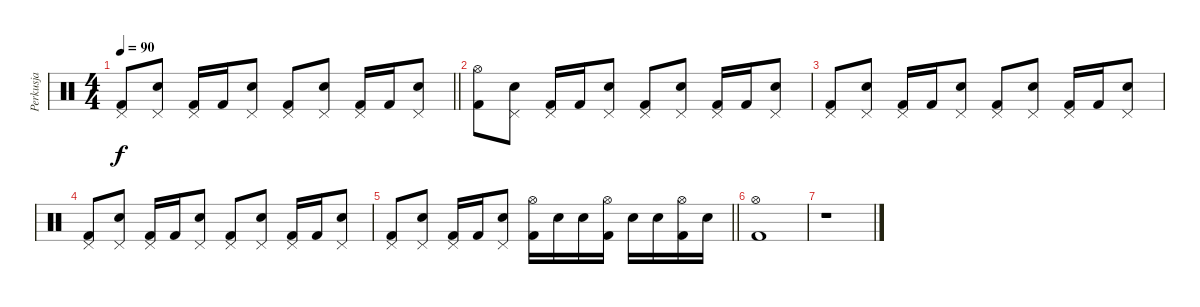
\track ("Perkusja" "Perkusja") {instrument percussion}
\staff {score}
\articulation defaults
\ts (4 4)
\tempo 90
\clef neutral
\barLineRight lightlight
\ks c
("Pedal Hi-Hat (hit)" "Kick (hit) 2").8{dy f} ("Pedal Hi-Hat (hit)" "Electric Snare (hit)").8 ("Pedal Hi-Hat (hit)" "Kick (hit) 2").16 "Kick (hit) 2".16 ("Pedal Hi-Hat (hit)" "Electric Snare (hit)").8 ("Pedal Hi-Hat (hit)" "Kick (hit) 2").8 ("Pedal Hi-Hat (hit)" "Electric Snare (hit)").8 ("Pedal Hi-Hat (hit)" "Kick (hit) 2").16 "Kick (hit) 2".16 ("Pedal Hi-Hat (hit)" "Electric Snare (hit)").8 |
("Hi-Hat (open)" "Kick (hit) 2").8 ("Pedal Hi-Hat (hit)" "Electric Snare (hit)").8 ("Pedal Hi-Hat (hit)" "Kick (hit) 2").16 "Kick (hit) 2".16 ("Pedal Hi-Hat (hit)" "Electric Snare (hit)").8 ("Pedal Hi-Hat (hit)" "Kick (hit) 2").8 ("Pedal Hi-Hat (hit)" "Electric Snare (hit)").8 ("Pedal Hi-Hat (hit)" "Kick (hit) 2").16 "Kick (hit) 2".16 ("Pedal Hi-Hat (hit)" "Electric Snare (hit)").8 |
("Pedal Hi-Hat (hit)" "Kick (hit) 2").8 ("Pedal Hi-Hat (hit)" "Electric Snare (hit)").8 ("Pedal Hi-Hat (hit)" "Kick (hit) 2").16 "Kick (hit) 2".16 ("Pedal Hi-Hat (hit)" "Electric Snare (hit)").8 ("Pedal Hi-Hat (hit)" "Kick (hit) 2").8 ("Pedal Hi-Hat (hit)" "Electric Snare (hit)").8 ("Pedal Hi-Hat (hit)" "Kick (hit) 2").16 "Kick (hit) 2".16 ("Pedal Hi-Hat (hit)" "Electric Snare (hit)").8 |
("Pedal Hi-Hat (hit)" "Kick (hit) 2").8 ("Pedal Hi-Hat (hit)" "Electric Snare (hit)").8 ("Pedal Hi-Hat (hit)" "Kick (hit) 2").16 "Kick (hit) 2".16 ("Pedal Hi-Hat (hit)" "Electric Snare (hit)").8 ("Pedal Hi-Hat (hit)" "Kick (hit) 2").8 ("Pedal Hi-Hat (hit)" "Electric Snare (hit)").8 ("Pedal Hi-Hat (hit)" "Kick (hit) 2").16 "Kick (hit) 2".16 ("Pedal Hi-Hat (hit)" "Electric Snare (hit)").8 |
\barLineRight lightlight
("Pedal Hi-Hat (hit)" "Kick (hit) 2").8 ("Pedal Hi-Hat (hit)" "Electric Snare (hit)").8 ("Pedal Hi-Hat (hit)" "Kick (hit) 2").16 "Kick (hit) 2".16 ("Pedal Hi-Hat (hit)" "Electric Snare (hit)").8 ("Hi-Hat (open)" "Kick (hit) 2").16 "Electric Snare (hit)".16 "Electric Snare (hit)".16 ("Hi-Hat (open)" "Kick (hit) 2").16 "Electric Snare (hit)".16 "Electric Snare (hit)".16 ("Hi-Hat (open)" "Kick (hit) 2").16 "Electric Snare (hit)".16 |
("Hi-Hat (open)" "Kick (hit) 2").1 |
r.1
